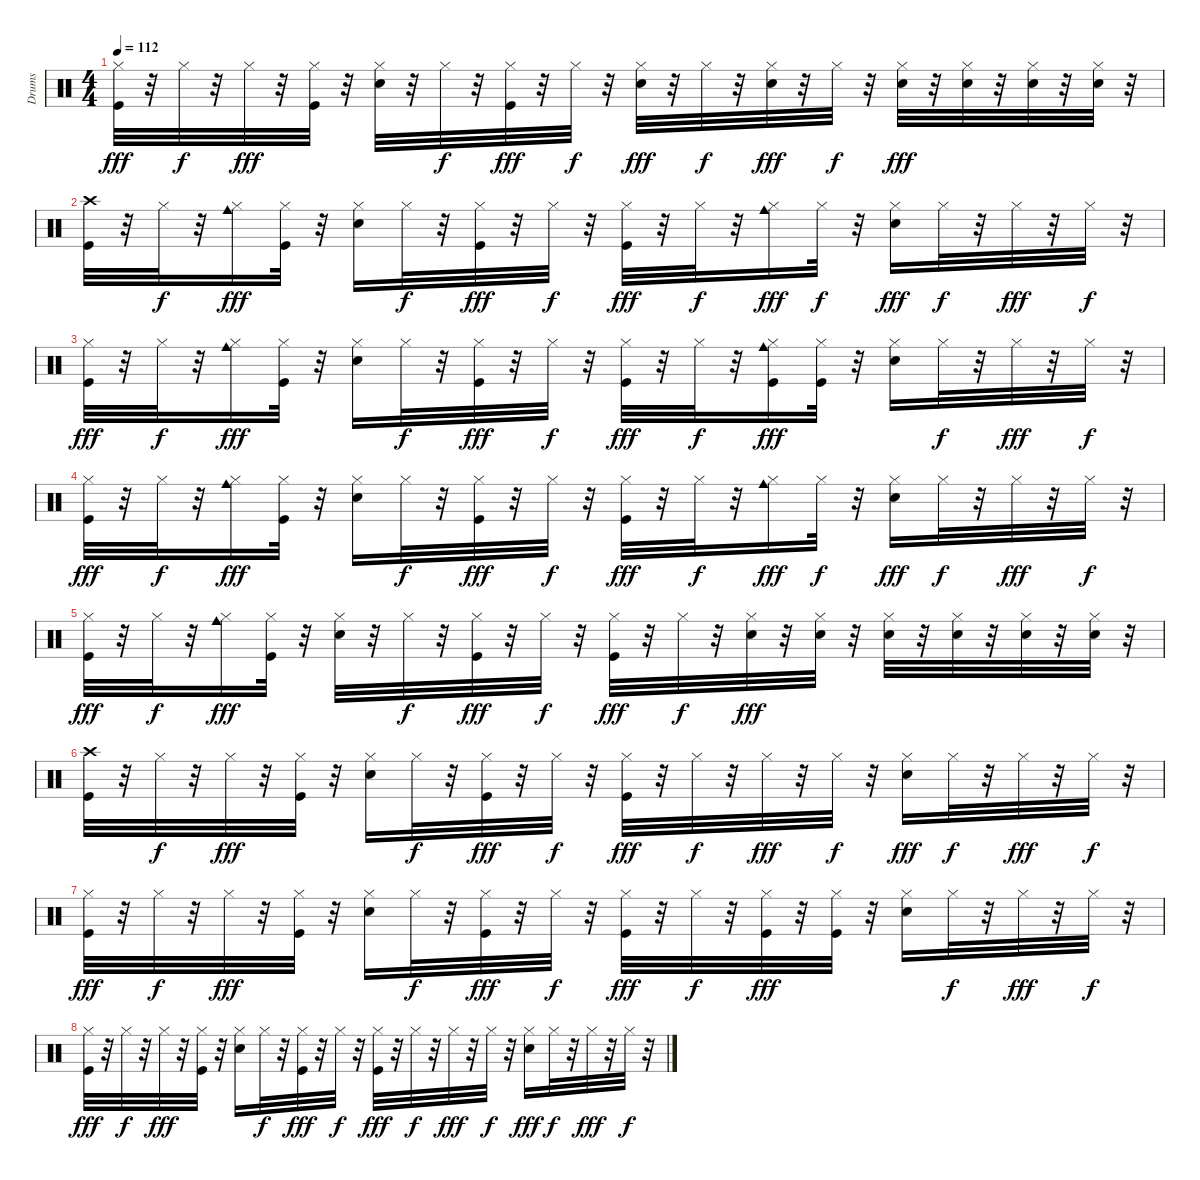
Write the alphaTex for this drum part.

\track ("Drums" "Drums") {instrument percussion}
\staff {score}
\articulation defaults
\ts (4 4)
\tempo 112
\clef neutral
\ks c
("Kick (hit)" "Hi-Hat (closed)").32{dy fff} r.32 "Hi-Hat (closed)".32{dy f} r.32 "Hi-Hat (closed)".32{dy fff} r.32 ("Kick (hit)" "Hi-Hat (closed)").32 r.32 ("Snare (hit) 2" "Hi-Hat (closed)").32 r.32 "Hi-Hat (closed)".32{dy f} r.32 ("Kick (hit)" "Hi-Hat (closed)").32{dy fff} r.32 "Hi-Hat (closed)".32{dy f} r.32 ("Snare (hit) 2" "Hi-Hat (closed)").32{dy fff} r.32 "Hi-Hat (closed)".32{dy f} r.32 ("Snare (hit) 2" "Hi-Hat (closed)").32{dy fff} r.32 "Hi-Hat (closed)".32{dy f} r.32 ("Snare (hit) 2" "Hi-Hat (closed)").32{dy fff} r.32 ("Snare (hit) 2" "Hi-Hat (closed)").32 r.32 ("Snare (hit) 2" "Hi-Hat (closed)").32 r.32 ("Snare (hit) 2" "Hi-Hat (closed)").32 r.32 |
("Kick (hit)" "Crash high (hit)").32 r.32 "Hi-Hat (closed)".32{dy f} r.32 ("Hi-Hat (closed)" "Cowbell medium (hit)").16{dy fff} ("Kick (hit)" "Hi-Hat (closed)").32 r.32 ("Snare (hit) 2" "Hi-Hat (closed)").16 "Hi-Hat (closed)".32{dy f} r.32 ("Kick (hit)" "Hi-Hat (closed)").32{dy fff} r.32 "Hi-Hat (closed)".32{dy f} r.32 ("Kick (hit)" "Hi-Hat (closed)").32{dy fff} r.32 "Hi-Hat (closed)".32{dy f} r.32 ("Hi-Hat (closed)" "Cowbell medium (hit)").16{dy fff} "Hi-Hat (closed)".32{dy f} r.32 ("Snare (hit) 2" "Hi-Hat (closed)").16{dy fff} "Hi-Hat (closed)".32{dy f} r.32 "Hi-Hat (closed)".32{dy fff} r.32 "Hi-Hat (closed)".32{dy f} r.32 |
("Kick (hit)" "Hi-Hat (closed)").32{dy fff} r.32 "Hi-Hat (closed)".32{dy f} r.32 ("Hi-Hat (closed)" "Cowbell medium (hit)").16{dy fff} ("Kick (hit)" "Hi-Hat (closed)").32 r.32 ("Snare (hit) 2" "Hi-Hat (closed)").16 "Hi-Hat (closed)".32{dy f} r.32 ("Kick (hit)" "Hi-Hat (closed)").32{dy fff} r.32 "Hi-Hat (closed)".32{dy f} r.32 ("Kick (hit)" "Hi-Hat (closed)").32{dy fff} r.32 "Hi-Hat (closed)".32{dy f} r.32 ("Kick (hit)" "Hi-Hat (closed)" "Cowbell medium (hit)").16{dy fff} ("Kick (hit)" "Hi-Hat (closed)").32 r.32 ("Snare (hit) 2" "Hi-Hat (closed)").16 "Hi-Hat (closed)".32{dy f} r.32 "Hi-Hat (closed)".32{dy fff} r.32 "Hi-Hat (closed)".32{dy f} r.32 |
("Kick (hit)" "Hi-Hat (closed)").32{dy fff} r.32 "Hi-Hat (closed)".32{dy f} r.32 ("Hi-Hat (closed)" "Cowbell medium (hit)").16{dy fff} ("Kick (hit)" "Hi-Hat (closed)").32 r.32 ("Snare (hit) 2" "Hi-Hat (closed)").16 "Hi-Hat (closed)".32{dy f} r.32 ("Kick (hit)" "Hi-Hat (closed)").32{dy fff} r.32 "Hi-Hat (closed)".32{dy f} r.32 ("Kick (hit)" "Hi-Hat (closed)").32{dy fff} r.32 "Hi-Hat (closed)".32{dy f} r.32 ("Hi-Hat (closed)" "Cowbell medium (hit)").16{dy fff} "Hi-Hat (closed)".32{dy f} r.32 ("Snare (hit) 2" "Hi-Hat (closed)").16{dy fff} "Hi-Hat (closed)".32{dy f} r.32 "Hi-Hat (closed)".32{dy fff} r.32 "Hi-Hat (closed)".32{dy f} r.32 |
("Kick (hit)" "Hi-Hat (closed)").32{dy fff} r.32 "Hi-Hat (closed)".32{dy f} r.32 ("Hi-Hat (closed)" "Cowbell medium (hit)").16{dy fff} ("Kick (hit)" "Hi-Hat (closed)").32 r.32 ("Snare (hit) 2" "Hi-Hat (closed)").32 r.32 "Hi-Hat (closed)".32{dy f} r.32 ("Kick (hit)" "Hi-Hat (closed)").32{dy fff} r.32 "Hi-Hat (closed)".32{dy f} r.32 ("Kick (hit)" "Hi-Hat (closed)").32{dy fff} r.32 "Hi-Hat (closed)".32{dy f} r.32 ("Snare (hit) 2" "Hi-Hat (closed)").32{dy fff} r.32 ("Snare (hit) 2" "Hi-Hat (closed)").32 r.32 ("Snare (hit) 2" "Hi-Hat (closed)").32 r.32 ("Snare (hit) 2" "Hi-Hat (closed)").32 r.32 ("Snare (hit) 2" "Hi-Hat (closed)").32 r.32 ("Snare (hit) 2" "Hi-Hat (closed)").32 r.32 |
("Kick (hit)" "Crash high (hit)").32 r.32 "Hi-Hat (closed)".32{dy f} r.32 "Hi-Hat (closed)".32{dy fff} r.32 ("Kick (hit)" "Hi-Hat (closed)").32 r.32 ("Snare (hit) 2" "Hi-Hat (closed)").16 "Hi-Hat (closed)".32{dy f} r.32 ("Kick (hit)" "Hi-Hat (closed)").32{dy fff} r.32 "Hi-Hat (closed)".32{dy f} r.32 ("Kick (hit)" "Hi-Hat (closed)").32{dy fff} r.32 "Hi-Hat (closed)".32{dy f} r.32 "Hi-Hat (closed)".32{dy fff} r.32 "Hi-Hat (closed)".32{dy f} r.32 ("Snare (hit) 2" "Hi-Hat (closed)").16{dy fff} "Hi-Hat (closed)".32{dy f} r.32 "Hi-Hat (closed)".32{dy fff} r.32 "Hi-Hat (closed)".32{dy f} r.32 |
("Kick (hit)" "Hi-Hat (closed)").32{dy fff} r.32 "Hi-Hat (closed)".32{dy f} r.32 "Hi-Hat (closed)".32{dy fff} r.32 ("Kick (hit)" "Hi-Hat (closed)").32 r.32 ("Snare (hit) 2" "Hi-Hat (closed)").16 "Hi-Hat (closed)".32{dy f} r.32 ("Kick (hit)" "Hi-Hat (closed)").32{dy fff} r.32 "Hi-Hat (closed)".32{dy f} r.32 ("Kick (hit)" "Hi-Hat (closed)").32{dy fff} r.32 "Hi-Hat (closed)".32{dy f} r.32 ("Kick (hit)" "Hi-Hat (closed)").32{dy fff} r.32 ("Kick (hit)" "Hi-Hat (closed)").32 r.32 ("Snare (hit) 2" "Hi-Hat (closed)").16 "Hi-Hat (closed)".32{dy f} r.32 "Hi-Hat (closed)".32{dy fff} r.32 "Hi-Hat (closed)".32{dy f} r.32 |
("Kick (hit)" "Hi-Hat (closed)").32{dy fff} r.32 "Hi-Hat (closed)".32{dy f} r.32 "Hi-Hat (closed)".32{dy fff} r.32 ("Kick (hit)" "Hi-Hat (closed)").32 r.32 ("Snare (hit) 2" "Hi-Hat (closed)").16 "Hi-Hat (closed)".32{dy f} r.32 ("Kick (hit)" "Hi-Hat (closed)").32{dy fff} r.32 "Hi-Hat (closed)".32{dy f} r.32 ("Kick (hit)" "Hi-Hat (closed)").32{dy fff} r.32 "Hi-Hat (closed)".32{dy f} r.32 "Hi-Hat (closed)".32{dy fff} r.32 "Hi-Hat (closed)".32{dy f} r.32 ("Snare (hit) 2" "Hi-Hat (closed)").16{dy fff} "Hi-Hat (closed)".32{dy f} r.32 "Hi-Hat (closed)".32{dy fff} r.32 "Hi-Hat (closed)".32{dy f} r.32
